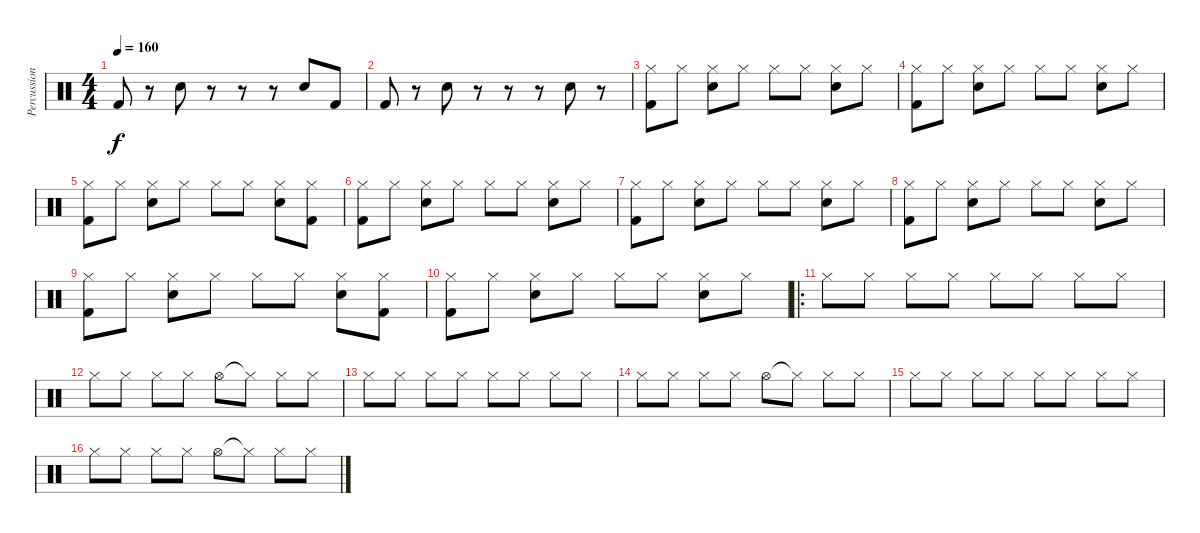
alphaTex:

\track ("Percussion" "Percussion") {instrument percussion}
\staff {score}
\articulation defaults
\ts (4 4)
\tempo 160
\clef neutral
\ks c "Kick (hit) 2".8{dy f}
r.8 "Snare (hit) 2".8 r.8 r.8 r.8 "Snare (hit) 2".8 "Kick (hit) 2".8 |
"Kick (hit) 2".8 r.8 "Snare (hit) 2".8 r.8 r.8 r.8 "Snare (hit) 2".8 r.8 |
("Kick (hit) 2" "Hi-Hat (closed)").8 "Hi-Hat (closed)".8 ("Snare (hit) 2" "Hi-Hat (closed)").8 "Hi-Hat (closed)".8 "Hi-Hat (closed)".8 "Hi-Hat (closed)".8 ("Snare (hit) 2" "Hi-Hat (closed)").8 "Hi-Hat (closed)".8 |
("Kick (hit) 2" "Hi-Hat (closed)").8 "Hi-Hat (closed)".8 ("Snare (hit) 2" "Hi-Hat (closed)").8 "Hi-Hat (closed)".8 "Hi-Hat (closed)".8 "Hi-Hat (closed)".8 ("Snare (hit) 2" "Hi-Hat (closed)").8 "Hi-Hat (closed)".8 |
("Kick (hit) 2" "Hi-Hat (closed)").8 "Hi-Hat (closed)".8 ("Snare (hit) 2" "Hi-Hat (closed)").8 "Hi-Hat (closed)".8 "Hi-Hat (closed)".8 "Hi-Hat (closed)".8 ("Snare (hit) 2" "Hi-Hat (closed)").8 ("Kick (hit) 2" "Hi-Hat (closed)").8 |
("Kick (hit) 2" "Hi-Hat (closed)").8 "Hi-Hat (closed)".8 ("Snare (hit) 2" "Hi-Hat (closed)").8 "Hi-Hat (closed)".8 "Hi-Hat (closed)".8 "Hi-Hat (closed)".8 ("Snare (hit) 2" "Hi-Hat (closed)").8 "Hi-Hat (closed)".8 |
("Kick (hit) 2" "Hi-Hat (closed)").8 "Hi-Hat (closed)".8 ("Snare (hit) 2" "Hi-Hat (closed)").8 "Hi-Hat (closed)".8 "Hi-Hat (closed)".8 "Hi-Hat (closed)".8 ("Snare (hit) 2" "Hi-Hat (closed)").8 "Hi-Hat (closed)".8 |
("Kick (hit) 2" "Hi-Hat (closed)").8 "Hi-Hat (closed)".8 ("Snare (hit) 2" "Hi-Hat (closed)").8 "Hi-Hat (closed)".8 "Hi-Hat (closed)".8 "Hi-Hat (closed)".8 ("Snare (hit) 2" "Hi-Hat (closed)").8 "Hi-Hat (closed)".8 |
("Kick (hit) 2" "Hi-Hat (closed)").8 "Hi-Hat (closed)".8 ("Snare (hit) 2" "Hi-Hat (closed)").8 "Hi-Hat (closed)".8 "Hi-Hat (closed)".8 "Hi-Hat (closed)".8 ("Snare (hit) 2" "Hi-Hat (closed)").8 ("Kick (hit) 2" "Hi-Hat (closed)").8 |
("Kick (hit) 2" "Hi-Hat (closed)").8 "Hi-Hat (closed)".8 ("Snare (hit) 2" "Hi-Hat (closed)").8 "Hi-Hat (closed)".8 "Hi-Hat (closed)".8 "Hi-Hat (closed)".8 ("Snare (hit) 2" "Hi-Hat (closed)").8 "Hi-Hat (closed)".8 |
\ro "Hi-Hat (closed)".8{volume 13} "Hi-Hat (closed)".8 "Hi-Hat (closed)".8 "Hi-Hat (closed)".8 "Hi-Hat (closed)".8 "Hi-Hat (closed)".8 "Hi-Hat (closed)".8 "Hi-Hat (closed)".8
|
"Hi-Hat (closed)".8 "Hi-Hat (closed)".8 "Hi-Hat (closed)".8 "Hi-Hat (closed)".8 "Hi-Hat (open)".8 "Hi-Hat (closed)"{t}.8 "Hi-Hat (closed)".8 "Hi-Hat (closed)".8 |
"Hi-Hat (closed)".8 "Hi-Hat (closed)".8 "Hi-Hat (closed)".8 "Hi-Hat (closed)".8 "Hi-Hat (closed)".8 "Hi-Hat (closed)".8 "Hi-Hat (closed)".8 "Hi-Hat (closed)".8 |
"Hi-Hat (closed)".8 "Hi-Hat (closed)".8 "Hi-Hat (closed)".8 "Hi-Hat (closed)".8 "Hi-Hat (open)".8 "Hi-Hat (closed)"{t}.8 "Hi-Hat (closed)".8 "Hi-Hat (closed)".8 |
"Hi-Hat (closed)".8 "Hi-Hat (closed)".8 "Hi-Hat (closed)".8 "Hi-Hat (closed)".8 "Hi-Hat (closed)".8 "Hi-Hat (closed)".8 "Hi-Hat (closed)".8 "Hi-Hat (closed)".8 |
"Hi-Hat (closed)".8 "Hi-Hat (closed)".8 "Hi-Hat (closed)".8 "Hi-Hat (closed)".8 "Hi-Hat (open)".8 "Hi-Hat (closed)"{t}.8 "Hi-Hat (closed)".8 "Hi-Hat (closed)".8
